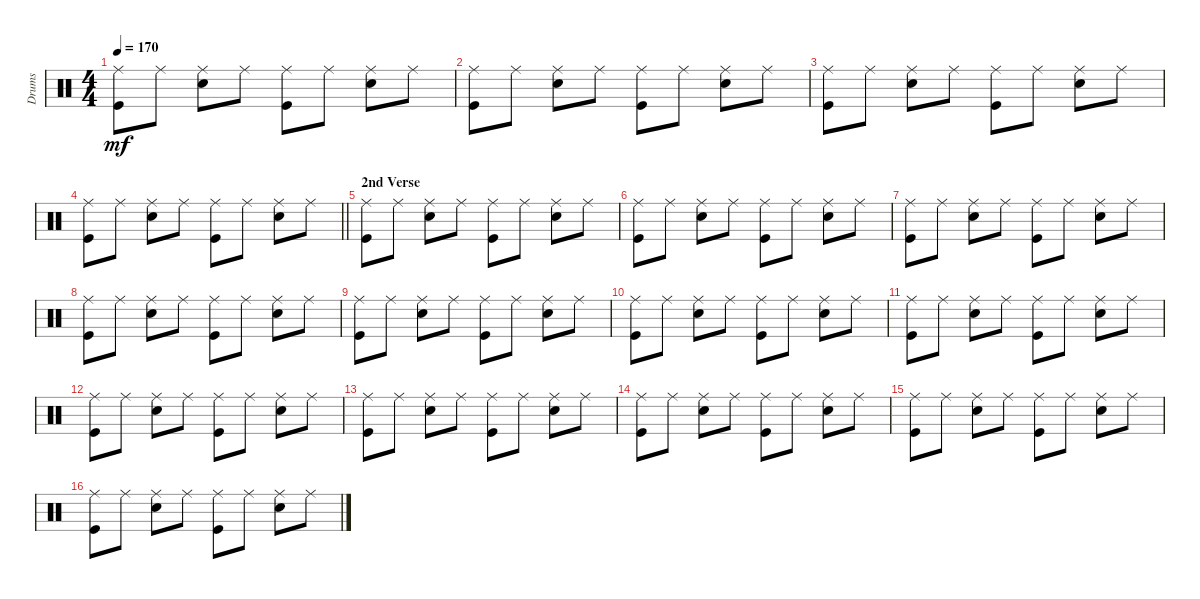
\track ("Drums" "Drums") {instrument percussion}
\staff {score}
\articulation defaults
\ts (4 4)
\tempo 170
\clef neutral
\ks c
("Ride (middle)" "Kick (hit)").8{dy mf} "Ride (middle)".8 ("Ride (middle)" "Snare (hit) 2").8 "Ride (middle)".8 ("Ride (middle)" "Kick (hit)").8 "Ride (middle)".8 ("Ride (middle)" "Snare (hit) 2").8 "Ride (middle)".8 |
("Ride (middle)" "Kick (hit)").8 "Ride (middle)".8 ("Ride (middle)" "Snare (hit) 2").8 "Ride (middle)".8 ("Ride (middle)" "Kick (hit)").8 "Ride (middle)".8 ("Ride (middle)" "Snare (hit) 2").8 "Ride (middle)".8 |
("Ride (middle)" "Kick (hit)").8 "Ride (middle)".8 ("Ride (middle)" "Snare (hit) 2").8 "Ride (middle)".8 ("Ride (middle)" "Kick (hit)").8 "Ride (middle)".8 ("Ride (middle)" "Snare (hit) 2").8 "Ride (middle)".8 |
\barLineRight lightlight
("Ride (middle)" "Kick (hit)").8 "Ride (middle)".8 ("Ride (middle)" "Snare (hit) 2").8 "Ride (middle)".8 ("Ride (middle)" "Kick (hit)").8 "Ride (middle)".8 ("Ride (middle)" "Snare (hit) 2").8 "Ride (middle)".8 |
\section ("" "2nd Verse")
("Ride (middle)" "Kick (hit)").8 "Ride (middle)".8 ("Ride (middle)" "Snare (hit) 2").8 "Ride (middle)".8 ("Ride (middle)" "Kick (hit)").8 "Ride (middle)".8 ("Ride (middle)" "Snare (hit) 2").8 "Ride (middle)".8 |
("Ride (middle)" "Kick (hit)").8 "Ride (middle)".8 ("Ride (middle)" "Snare (hit) 2").8 "Ride (middle)".8 ("Ride (middle)" "Kick (hit)").8 "Ride (middle)".8 ("Ride (middle)" "Snare (hit) 2").8 "Ride (middle)".8 |
("Ride (middle)" "Kick (hit)").8 "Ride (middle)".8 ("Ride (middle)" "Snare (hit) 2").8 "Ride (middle)".8 ("Ride (middle)" "Kick (hit)").8 "Ride (middle)".8 ("Ride (middle)" "Snare (hit) 2").8 "Ride (middle)".8 |
("Ride (middle)" "Kick (hit)").8 "Ride (middle)".8 ("Ride (middle)" "Snare (hit) 2").8 "Ride (middle)".8 ("Ride (middle)" "Kick (hit)").8 "Ride (middle)".8 ("Ride (middle)" "Snare (hit) 2").8 "Ride (middle)".8 |
("Ride (middle)" "Kick (hit)").8 "Ride (middle)".8 ("Ride (middle)" "Snare (hit) 2").8 "Ride (middle)".8 ("Ride (middle)" "Kick (hit)").8 "Ride (middle)".8 ("Ride (middle)" "Snare (hit) 2").8 "Ride (middle)".8 |
("Ride (middle)" "Kick (hit)").8 "Ride (middle)".8 ("Ride (middle)" "Snare (hit) 2").8 "Ride (middle)".8 ("Ride (middle)" "Kick (hit)").8 "Ride (middle)".8 ("Ride (middle)" "Snare (hit) 2").8 "Ride (middle)".8 |
("Ride (middle)" "Kick (hit)").8 "Ride (middle)".8 ("Ride (middle)" "Snare (hit) 2").8 "Ride (middle)".8 ("Ride (middle)" "Kick (hit)").8 "Ride (middle)".8 ("Ride (middle)" "Snare (hit) 2").8 "Ride (middle)".8 |
("Ride (middle)" "Kick (hit)").8 "Ride (middle)".8 ("Ride (middle)" "Snare (hit) 2").8 "Ride (middle)".8 ("Ride (middle)" "Kick (hit)").8 "Ride (middle)".8 ("Ride (middle)" "Snare (hit) 2").8 "Ride (middle)".8 |
("Ride (middle)" "Kick (hit)").8 "Ride (middle)".8 ("Ride (middle)" "Snare (hit) 2").8 "Ride (middle)".8 ("Ride (middle)" "Kick (hit)").8 "Ride (middle)".8 ("Ride (middle)" "Snare (hit) 2").8 "Ride (middle)".8 |
("Ride (middle)" "Kick (hit)").8 "Ride (middle)".8 ("Ride (middle)" "Snare (hit) 2").8 "Ride (middle)".8 ("Ride (middle)" "Kick (hit)").8 "Ride (middle)".8 ("Ride (middle)" "Snare (hit) 2").8 "Ride (middle)".8 |
("Ride (middle)" "Kick (hit)").8 "Ride (middle)".8 ("Ride (middle)" "Snare (hit) 2").8 "Ride (middle)".8 ("Ride (middle)" "Kick (hit)").8 "Ride (middle)".8 ("Ride (middle)" "Snare (hit) 2").8 "Ride (middle)".8 |
("Ride (middle)" "Kick (hit)").8 "Ride (middle)".8 ("Ride (middle)" "Snare (hit) 2").8 "Ride (middle)".8 ("Ride (middle)" "Kick (hit)").8 "Ride (middle)".8 ("Ride (middle)" "Snare (hit) 2").8 "Ride (middle)".8
